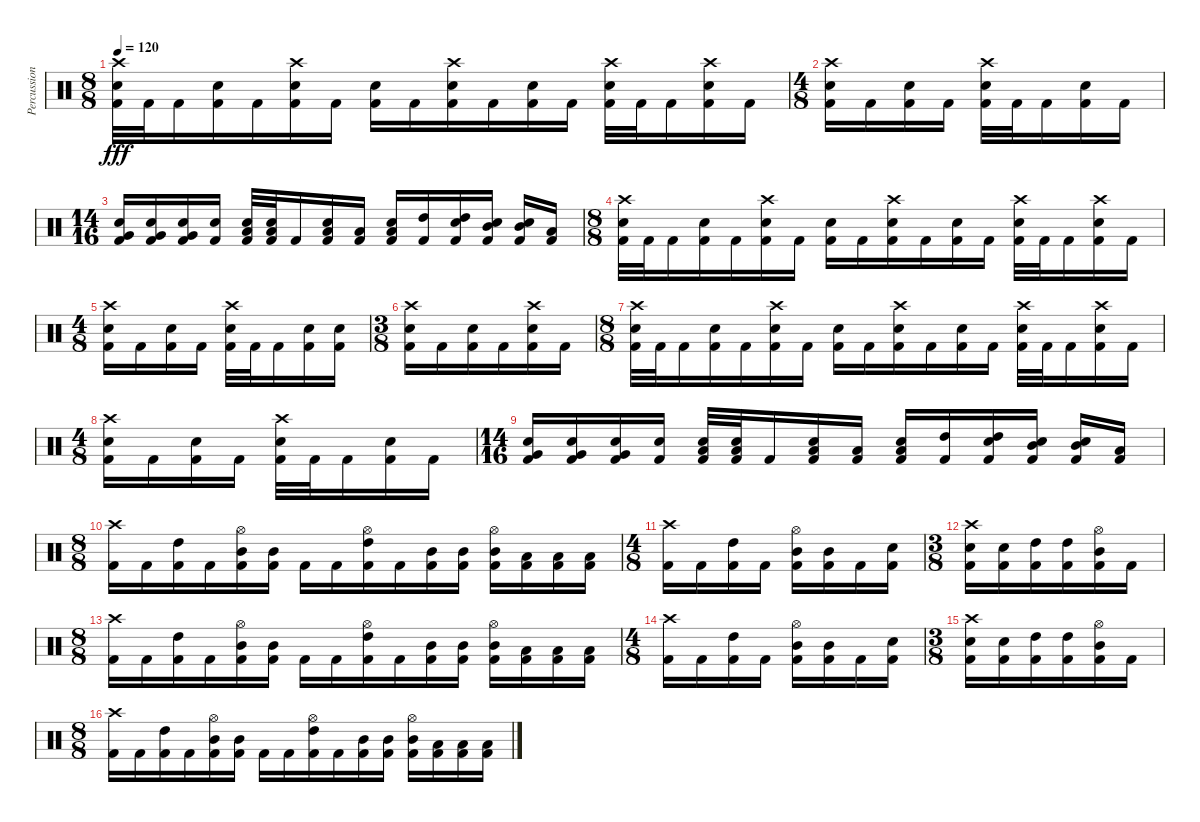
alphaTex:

\track ("Percussion" "Percussion") {instrument percussion}
\staff {score}
\articulation defaults
\ts (8 8)
\tempo 120
\clef neutral
\ks c
("Crash high (hit)" "Snare (hit) 2" "Kick (hit) 2").32{dy fff} "Kick (hit) 2".32 "Kick (hit) 2".16 ("Snare (hit) 2" "Kick (hit) 2").16 "Kick (hit) 2".16 ("Crash high (hit)" "Snare (hit) 2" "Kick (hit) 2").16 "Kick (hit) 2".16 ("Snare (hit) 2" "Kick (hit) 2").16 "Kick (hit) 2".16 ("Crash high (hit)" "Snare (hit) 2" "Kick (hit) 2").16 "Kick (hit) 2".16 ("Snare (hit) 2" "Kick (hit) 2").16 "Kick (hit) 2".16 ("Crash high (hit)" "Snare (hit) 2" "Kick (hit) 2").32 "Kick (hit) 2".32 "Kick (hit) 2".16 ("Crash high (hit)" "Snare (hit) 2" "Kick (hit) 2").16 "Kick (hit) 2".16 |
\ts (4 8)
("Crash high (hit)" "Snare (hit) 2" "Kick (hit) 2").16 "Kick (hit) 2".16 ("Snare (hit) 2" "Kick (hit) 2").16 "Kick (hit) 2".16 ("Crash high (hit)" "Snare (hit) 2" "Kick (hit) 2").32 "Kick (hit) 2".32 "Kick (hit) 2".16 ("Snare (hit) 2" "Kick (hit) 2").16 "Kick (hit) 2".16 |
\ts (14 16)
("Very Low Tom (hit)" "Snare (hit) 2" "Kick (hit) 2").16 ("Very Low Tom (hit)" "Snare (hit) 2" "Kick (hit) 2").16 ("Very Low Tom (hit)" "Snare (hit) 2" "Kick (hit) 2").16 ("Snare (hit) 2" "Kick (hit) 2").16 ("Low Floor Tom (hit)" "Snare (hit) 2" "Kick (hit) 2").32 ("Low Floor Tom (hit)" "Snare (hit) 2" "Kick (hit) 2").32 "Kick (hit) 2".16 ("Low Tom (hit)" "Snare (hit) 2" "Kick (hit) 2").16 ("Low Tom (hit)" "Kick (hit) 2").16 ("Low Tom (hit)" "Snare (hit) 2" "Kick (hit) 2").16 ("High Tom (hit)" "Kick (hit) 2").16 ("High Tom (hit)" "Snare (hit) 2" "Kick (hit) 2").16 ("Mid Tom (hit)" "Snare (hit) 2" "Kick (hit) 2").16 ("Mid Tom (hit)" "Snare (hit) 2" "Kick (hit) 2").16 ("Low Tom (hit)" "Kick (hit) 2").16 |
\ts (8 8)
("Crash high (hit)" "Snare (hit) 2" "Kick (hit) 2").32 "Kick (hit) 2".32 "Kick (hit) 2".16 ("Snare (hit) 2" "Kick (hit) 2").16 "Kick (hit) 2".16 ("Crash high (hit)" "Snare (hit) 2" "Kick (hit) 2").16 "Kick (hit) 2".16 ("Snare (hit) 2" "Kick (hit) 2").16 "Kick (hit) 2".16 ("Crash high (hit)" "Snare (hit) 2" "Kick (hit) 2").16 "Kick (hit) 2".16 ("Snare (hit) 2" "Kick (hit) 2").16 "Kick (hit) 2".16 ("Crash high (hit)" "Snare (hit) 2" "Kick (hit) 2").32 "Kick (hit) 2".32 "Kick (hit) 2".16 ("Crash high (hit)" "Snare (hit) 2" "Kick (hit) 2").16 "Kick (hit) 2".16 |
\ts (4 8)
("Crash high (hit)" "Snare (hit) 2" "Kick (hit) 2").16 "Kick (hit) 2".16 ("Snare (hit) 2" "Kick (hit) 2").16 "Kick (hit) 2".16 ("Crash high (hit)" "Snare (hit) 2" "Kick (hit) 2").32 "Kick (hit) 2".32 "Kick (hit) 2".16 ("Snare (hit) 2" "Kick (hit) 2").16 ("Snare (hit) 2" "Kick (hit) 2").16 |
\ts (3 8)
("Crash high (hit)" "Snare (hit) 2" "Kick (hit) 2").16 "Kick (hit) 2".16 ("Snare (hit) 2" "Kick (hit) 2").16 "Kick (hit) 2".16 ("Crash high (hit)" "Snare (hit) 2" "Kick (hit) 2").16 "Kick (hit) 2".16 |
\ts (8 8)
("Crash high (hit)" "Snare (hit) 2" "Kick (hit) 2").32 "Kick (hit) 2".32 "Kick (hit) 2".16 ("Snare (hit) 2" "Kick (hit) 2").16 "Kick (hit) 2".16 ("Crash high (hit)" "Snare (hit) 2" "Kick (hit) 2").16 "Kick (hit) 2".16 ("Snare (hit) 2" "Kick (hit) 2").16 "Kick (hit) 2".16 ("Crash high (hit)" "Snare (hit) 2" "Kick (hit) 2").16 "Kick (hit) 2".16 ("Snare (hit) 2" "Kick (hit) 2").16 "Kick (hit) 2".16 ("Crash high (hit)" "Snare (hit) 2" "Kick (hit) 2").32 "Kick (hit) 2".32 "Kick (hit) 2".16 ("Crash high (hit)" "Snare (hit) 2" "Kick (hit) 2").16 "Kick (hit) 2".16 |
\ts (4 8)
("Crash high (hit)" "Snare (hit) 2" "Kick (hit) 2").16 "Kick (hit) 2".16 ("Snare (hit) 2" "Kick (hit) 2").16 "Kick (hit) 2".16 ("Crash high (hit)" "Snare (hit) 2" "Kick (hit) 2").32 "Kick (hit) 2".32 "Kick (hit) 2".16 ("Snare (hit) 2" "Kick (hit) 2").16 "Kick (hit) 2".16 |
\ts (14 16)
("Very Low Tom (hit)" "Snare (hit) 2" "Kick (hit) 2").16 ("Very Low Tom (hit)" "Snare (hit) 2" "Kick (hit) 2").16 ("Very Low Tom (hit)" "Snare (hit) 2" "Kick (hit) 2").16 ("Snare (hit) 2" "Kick (hit) 2").16 ("Low Floor Tom (hit)" "Snare (hit) 2" "Kick (hit) 2").32 ("Low Floor Tom (hit)" "Snare (hit) 2" "Kick (hit) 2").32 "Kick (hit) 2".16 ("Low Tom (hit)" "Snare (hit) 2" "Kick (hit) 2").16 ("Low Tom (hit)" "Kick (hit) 2").16 ("Low Tom (hit)" "Snare (hit) 2" "Kick (hit) 2").16 ("High Tom (hit)" "Kick (hit) 2").16 ("High Tom (hit)" "Snare (hit) 2" "Kick (hit) 2").16 ("Mid Tom (hit)" "Snare (hit) 2" "Kick (hit) 2").16 ("Mid Tom (hit)" "Snare (hit) 2" "Kick (hit) 2").16 ("Low Tom (hit)" "Kick (hit) 2").16 |
\ts (8 8)
("Crash high (hit)" "Kick (hit) 2").16 "Kick (hit) 2".16 ("High Tom (hit)" "Kick (hit) 2").16 "Kick (hit) 2".16 ("Hi-Hat (open)" "Mid Tom (hit)" "Kick (hit) 2").16 ("Mid Tom (hit)" "Kick (hit) 2").16 "Kick (hit) 2".16 "Kick (hit) 2".16 ("Hi-Hat (open)" "High Tom (hit)" "Kick (hit) 2").16 "Kick (hit) 2".16 ("Mid Tom (hit)" "Kick (hit) 2").16 ("Mid Tom (hit)" "Kick (hit) 2").16 ("Hi-Hat (open)" "Mid Tom (hit)" "Kick (hit) 2").16 ("Low Tom (hit)" "Kick (hit) 2").16 ("Low Tom (hit)" "Kick (hit) 2").16 ("Low Tom (hit)" "Kick (hit) 2").16 |
\ts (4 8)
("Crash high (hit)" "Kick (hit) 2").16 "Kick (hit) 2".16 ("High Tom (hit)" "Kick (hit) 2").16 "Kick (hit) 2".16 ("Hi-Hat (open)" "Mid Tom (hit)" "Kick (hit) 2").16 ("Mid Tom (hit)" "Kick (hit) 2").16 "Kick (hit) 2".16 ("Snare (hit) 2" "Kick (hit) 2").16 |
\ts (3 8)
("Crash high (hit)" "Snare (hit) 2" "Kick (hit) 2").16 ("Snare (hit) 2" "Kick (hit) 2").16 ("High Tom (hit)" "Kick (hit) 2").16 ("High Tom (hit)" "Kick (hit) 2").16 ("Hi-Hat (open)" "Mid Tom (hit)" "Kick (hit) 2").16 "Kick (hit) 2".16 |
\ts (8 8)
("Crash high (hit)" "Kick (hit) 2").16 "Kick (hit) 2".16 ("High Tom (hit)" "Kick (hit) 2").16 "Kick (hit) 2".16 ("Hi-Hat (open)" "Mid Tom (hit)" "Kick (hit) 2").16 ("Mid Tom (hit)" "Kick (hit) 2").16 "Kick (hit) 2".16 "Kick (hit) 2".16 ("Hi-Hat (open)" "High Tom (hit)" "Kick (hit) 2").16 "Kick (hit) 2".16 ("Mid Tom (hit)" "Kick (hit) 2").16 ("Mid Tom (hit)" "Kick (hit) 2").16 ("Hi-Hat (open)" "Mid Tom (hit)" "Kick (hit) 2").16 ("Low Tom (hit)" "Kick (hit) 2").16 ("Low Tom (hit)" "Kick (hit) 2").16 ("Low Tom (hit)" "Kick (hit) 2").16 |
\ts (4 8)
("Crash high (hit)" "Kick (hit) 2").16 "Kick (hit) 2".16 ("High Tom (hit)" "Kick (hit) 2").16 "Kick (hit) 2".16 ("Hi-Hat (open)" "Mid Tom (hit)" "Kick (hit) 2").16 ("Mid Tom (hit)" "Kick (hit) 2").16 "Kick (hit) 2".16 ("Snare (hit) 2" "Kick (hit) 2").16 |
\ts (3 8)
("Crash high (hit)" "Snare (hit) 2" "Kick (hit) 2").16 ("Snare (hit) 2" "Kick (hit) 2").16 ("High Tom (hit)" "Kick (hit) 2").16 ("High Tom (hit)" "Kick (hit) 2").16 ("Hi-Hat (open)" "Mid Tom (hit)" "Kick (hit) 2").16 "Kick (hit) 2".16 |
\ts (8 8)
("Crash high (hit)" "Kick (hit) 2").16 "Kick (hit) 2".16 ("High Tom (hit)" "Kick (hit) 2").16 "Kick (hit) 2".16 ("Hi-Hat (open)" "Mid Tom (hit)" "Kick (hit) 2").16 ("Mid Tom (hit)" "Kick (hit) 2").16 "Kick (hit) 2".16 "Kick (hit) 2".16 ("Hi-Hat (open)" "High Tom (hit)" "Kick (hit) 2").16 "Kick (hit) 2".16 ("Mid Tom (hit)" "Kick (hit) 2").16 ("Mid Tom (hit)" "Kick (hit) 2").16 ("Hi-Hat (open)" "Mid Tom (hit)" "Kick (hit) 2").16 ("Low Tom (hit)" "Kick (hit) 2").16 ("Low Tom (hit)" "Kick (hit) 2").16 ("Low Tom (hit)" "Kick (hit) 2").16
